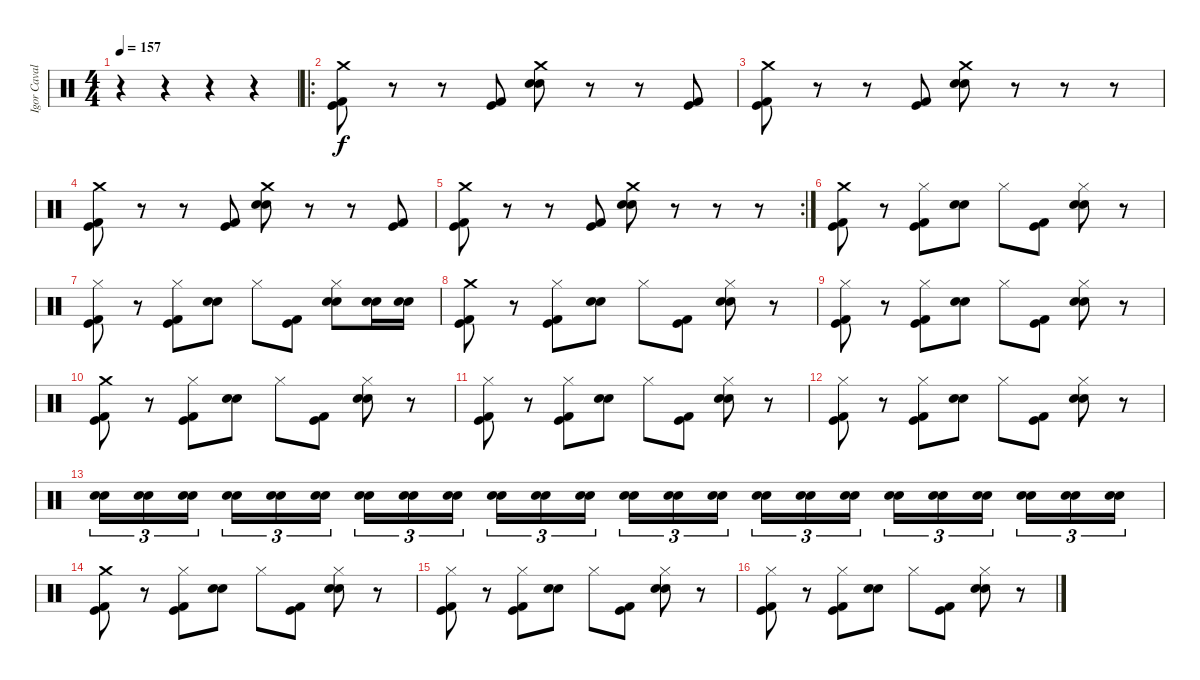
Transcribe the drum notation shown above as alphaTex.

\track ("Igor Cavalera" "Igor Caval") {instrument percussion}
\staff {score}
\articulation defaults
\ts (4 4)
\tempo 157
\clef neutral
\ks c
r.4{dy f} r.4 r.4 r.4 |
\ro
("Crash medium (hit)" "Kick (hit) 2" "Kick (hit)").8 r.8 r.8 ("Kick (hit) 2" "Kick (hit)").8 ("Crash medium (hit)" "Electric Snare (hit)" "Snare (hit) 2").8 r.8 r.8 ("Kick (hit) 2" "Kick (hit)").8 |
("Crash medium (hit)" "Kick (hit) 2" "Kick (hit)").8 r.8 r.8 ("Kick (hit) 2" "Kick (hit)").8 ("Crash medium (hit)" "Electric Snare (hit)" "Snare (hit) 2").8 r.8 r.8 r.8 |
("Crash medium (hit)" "Kick (hit) 2" "Kick (hit)").8 r.8 r.8 ("Kick (hit) 2" "Kick (hit)").8 ("Crash medium (hit)" "Electric Snare (hit)" "Snare (hit) 2").8 r.8 r.8 ("Kick (hit) 2" "Kick (hit)").8 |
\rc 2
("Crash medium (hit)" "Kick (hit) 2" "Kick (hit)").8 r.8 r.8 ("Kick (hit) 2" "Kick (hit)").8 ("Crash medium (hit)" "Electric Snare (hit)" "Snare (hit) 2").8 r.8 r.8 r.8 |
("Crash medium (hit)" "Kick (hit) 2" "Kick (hit)").8 r.8 ("Hi-Hat (closed)" "Kick (hit) 2" "Kick (hit)").8 ("Electric Snare (hit)" "Snare (hit) 2").8 "Hi-Hat (closed)".8 ("Kick (hit) 2" "Kick (hit)").8 ("Hi-Hat (closed)" "Electric Snare (hit)" "Snare (hit) 2").8 r.8 |
("Hi-Hat (closed)" "Kick (hit) 2" "Kick (hit)").8 r.8 ("Hi-Hat (closed)" "Kick (hit) 2" "Kick (hit)").8 ("Electric Snare (hit)" "Snare (hit) 2").8 "Hi-Hat (closed)".8 ("Kick (hit) 2" "Kick (hit)").8 ("Hi-Hat (closed)" "Electric Snare (hit)" "Snare (hit) 2").8 ("Electric Snare (hit)" "Snare (hit) 2").16 ("Electric Snare (hit)" "Snare (hit) 2").16 |
("Crash medium (hit)" "Kick (hit) 2" "Kick (hit)").8 r.8 ("Hi-Hat (closed)" "Kick (hit) 2" "Kick (hit)").8 ("Electric Snare (hit)" "Snare (hit) 2").8 "Hi-Hat (closed)".8 ("Kick (hit) 2" "Kick (hit)").8 ("Hi-Hat (closed)" "Electric Snare (hit)" "Snare (hit) 2").8 r.8 |
("Hi-Hat (closed)" "Kick (hit) 2" "Kick (hit)").8 r.8 ("Hi-Hat (closed)" "Kick (hit) 2" "Kick (hit)").8 ("Electric Snare (hit)" "Snare (hit) 2").8 "Hi-Hat (closed)".8 ("Kick (hit) 2" "Kick (hit)").8 ("Hi-Hat (closed)" "Electric Snare (hit)" "Snare (hit) 2").8 r.8 |
("Crash medium (hit)" "Kick (hit) 2" "Kick (hit)").8 r.8 ("Hi-Hat (closed)" "Kick (hit) 2" "Kick (hit)").8 ("Electric Snare (hit)" "Snare (hit) 2").8 "Hi-Hat (closed)".8 ("Kick (hit) 2" "Kick (hit)").8 ("Hi-Hat (closed)" "Electric Snare (hit)" "Snare (hit) 2").8 r.8 |
("Hi-Hat (closed)" "Kick (hit) 2" "Kick (hit)").8 r.8 ("Hi-Hat (closed)" "Kick (hit) 2" "Kick (hit)").8 ("Electric Snare (hit)" "Snare (hit) 2").8 "Hi-Hat (closed)".8 ("Kick (hit) 2" "Kick (hit)").8 ("Hi-Hat (closed)" "Electric Snare (hit)" "Snare (hit) 2").8 r.8 |
("Hi-Hat (closed)" "Kick (hit) 2" "Kick (hit)").8 r.8 ("Hi-Hat (closed)" "Kick (hit) 2" "Kick (hit)").8 ("Electric Snare (hit)" "Snare (hit) 2").8 "Hi-Hat (closed)".8 ("Kick (hit) 2" "Kick (hit)").8 ("Hi-Hat (closed)" "Electric Snare (hit)" "Snare (hit) 2").8 r.8 |
("Snare (hit) 2" "Electric Snare (hit)").16{tu (3 2)} ("Snare (hit) 2" "Electric Snare (hit)").16{tu (3 2)} ("Snare (hit) 2" "Electric Snare (hit)").16{tu (3 2)} ("Snare (hit) 2" "Electric Snare (hit)").16{tu (3 2)} ("Snare (hit) 2" "Electric Snare (hit)").16{tu (3 2)} ("Snare (hit) 2" "Electric Snare (hit)").16{tu (3 2)} ("Snare (hit) 2" "Electric Snare (hit)").16{tu (3 2)} ("Snare (hit) 2" "Electric Snare (hit)").16{tu (3 2)} ("Snare (hit) 2" "Electric Snare (hit)").16{tu (3 2)} ("Snare (hit) 2" "Electric Snare (hit)").16{tu (3 2)} ("Snare (hit) 2" "Electric Snare (hit)").16{tu (3 2)} ("Snare (hit) 2" "Electric Snare (hit)").16{tu (3 2)} ("Snare (hit) 2" "Electric Snare (hit)").16{tu (3 2)} ("Snare (hit) 2" "Electric Snare (hit)").16{tu (3 2)} ("Snare (hit) 2" "Electric Snare (hit)").16{tu (3 2)} ("Snare (hit) 2" "Electric Snare (hit)").16{tu (3 2)} ("Snare (hit) 2" "Electric Snare (hit)").16{tu (3 2)} ("Snare (hit) 2" "Electric Snare (hit)").16{tu (3 2)} ("Snare (hit) 2" "Electric Snare (hit)").16{tu (3 2)} ("Snare (hit) 2" "Electric Snare (hit)").16{tu (3 2)} ("Snare (hit) 2" "Electric Snare (hit)").16{tu (3 2)} ("Snare (hit) 2" "Electric Snare (hit)").16{tu (3 2)} ("Snare (hit) 2" "Electric Snare (hit)").16{tu (3 2)} ("Snare (hit) 2" "Electric Snare (hit)").16{tu (3 2)} |
("Crash medium (hit)" "Kick (hit) 2" "Kick (hit)").8 r.8 ("Hi-Hat (closed)" "Kick (hit) 2" "Kick (hit)").8 ("Electric Snare (hit)" "Snare (hit) 2").8 "Hi-Hat (closed)".8 ("Kick (hit) 2" "Kick (hit)").8 ("Hi-Hat (closed)" "Electric Snare (hit)" "Snare (hit) 2").8 r.8 |
("Hi-Hat (closed)" "Kick (hit) 2" "Kick (hit)").8 r.8 ("Hi-Hat (closed)" "Kick (hit) 2" "Kick (hit)").8 ("Electric Snare (hit)" "Snare (hit) 2").8 "Hi-Hat (closed)".8 ("Kick (hit) 2" "Kick (hit)").8 ("Hi-Hat (closed)" "Electric Snare (hit)" "Snare (hit) 2").8 r.8 |
("Hi-Hat (closed)" "Kick (hit) 2" "Kick (hit)").8 r.8 ("Hi-Hat (closed)" "Kick (hit) 2" "Kick (hit)").8 ("Electric Snare (hit)" "Snare (hit) 2").8 "Hi-Hat (closed)".8 ("Kick (hit) 2" "Kick (hit)").8 ("Hi-Hat (closed)" "Electric Snare (hit)" "Snare (hit) 2").8 r.8
